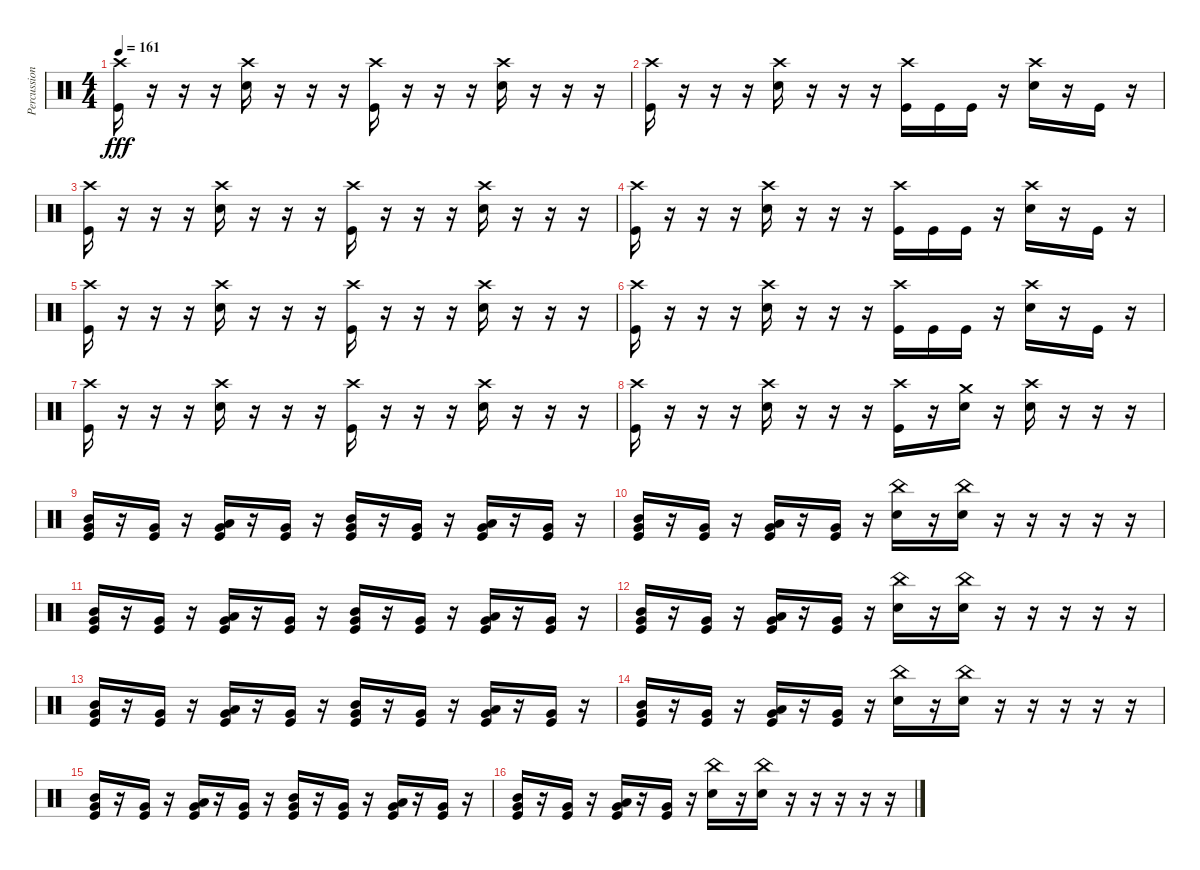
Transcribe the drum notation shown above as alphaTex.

\track ("Percussion" "Percussion") {instrument percussion}
\staff {score}
\articulation defaults
\ts (4 4)
\tempo 161
\clef neutral
\ks c
("Crash high (hit)" "Kick (hit)").16{dy fff} r.16 r.16 r.16 ("Crash high (hit)" "Electric Snare (hit)").16 r.16 r.16 r.16 ("Crash high (hit)" "Kick (hit)").16 r.16 r.16 r.16 ("Crash high (hit)" "Electric Snare (hit)").16 r.16 r.16 r.16 |
("Crash high (hit)" "Kick (hit)").16 r.16 r.16 r.16 ("Crash high (hit)" "Electric Snare (hit)").16 r.16 r.16 r.16 ("Crash high (hit)" "Kick (hit)").16 "Kick (hit)".16 "Kick (hit)".16 r.16 ("Crash high (hit)" "Electric Snare (hit)").16 r.16 "Kick (hit)".16 r.16 |
("Crash high (hit)" "Kick (hit)").16 r.16 r.16 r.16 ("Crash high (hit)" "Electric Snare (hit)").16 r.16 r.16 r.16 ("Crash high (hit)" "Kick (hit)").16 r.16 r.16 r.16 ("Crash high (hit)" "Electric Snare (hit)").16 r.16 r.16 r.16 |
("Crash high (hit)" "Kick (hit)").16 r.16 r.16 r.16 ("Crash high (hit)" "Electric Snare (hit)").16 r.16 r.16 r.16 ("Crash high (hit)" "Kick (hit)").16 "Kick (hit)".16 "Kick (hit)".16 r.16 ("Crash high (hit)" "Electric Snare (hit)").16 r.16 "Kick (hit)".16 r.16 |
("Crash high (hit)" "Kick (hit)").16 r.16 r.16 r.16 ("Crash high (hit)" "Electric Snare (hit)").16 r.16 r.16 r.16 ("Crash high (hit)" "Kick (hit)").16 r.16 r.16 r.16 ("Crash high (hit)" "Electric Snare (hit)").16 r.16 r.16 r.16 |
("Crash high (hit)" "Kick (hit)").16 r.16 r.16 r.16 ("Crash high (hit)" "Electric Snare (hit)").16 r.16 r.16 r.16 ("Crash high (hit)" "Kick (hit)").16 "Kick (hit)".16 "Kick (hit)".16 r.16 ("Crash high (hit)" "Electric Snare (hit)").16 r.16 "Kick (hit)".16 r.16 |
("Crash high (hit)" "Kick (hit)").16 r.16 r.16 r.16 ("Crash high (hit)" "Electric Snare (hit)").16 r.16 r.16 r.16 ("Crash high (hit)" "Kick (hit)").16 r.16 r.16 r.16 ("Crash high (hit)" "Electric Snare (hit)").16 r.16 r.16 r.16 |
("Crash high (hit)" "Kick (hit)").16 r.16 r.16 r.16 ("Crash high (hit)" "Electric Snare (hit)").16 r.16 r.16 r.16 ("Crash high (hit)" "Kick (hit)").16 r.16 ("Crash medium (hit)" "Electric Snare (hit)").16 r.16 ("Crash high (hit)" "Electric Snare (hit)").16 r.16 r.16 r.16 |
("Very Low Tom (hit)" "Mid Tom (hit)" "Kick (hit)").16 r.16 ("Very Low Tom (hit)" "Kick (hit)").16 r.16 ("Very Low Tom (hit)" "Low Tom (hit)" "Kick (hit)").16 r.16 ("Very Low Tom (hit)" "Kick (hit)").16 r.16 ("Very Low Tom (hit)" "Mid Tom (hit)" "Kick (hit)").16 r.16 ("Very Low Tom (hit)" "Kick (hit)").16 r.16 ("Very Low Tom (hit)" "Low Tom (hit)" "Kick (hit)").16 r.16 ("Very Low Tom (hit)" "Kick (hit)").16 r.16 |
("Very Low Tom (hit)" "Mid Tom (hit)" "Kick (hit)").16 r.16 ("Very Low Tom (hit)" "Kick (hit)").16 r.16 ("Very Low Tom (hit)" "Low Tom (hit)" "Kick (hit)").16 r.16 ("Very Low Tom (hit)" "Kick (hit)").16 r.16 ("China (hit)" "Electric Snare (hit)").16 r.16 ("China (hit)" "Electric Snare (hit)").16 r.16 r.16 r.16 r.16 r.16 |
("Very Low Tom (hit)" "Mid Tom (hit)" "Kick (hit)").16 r.16 ("Very Low Tom (hit)" "Kick (hit)").16 r.16 ("Very Low Tom (hit)" "Low Tom (hit)" "Kick (hit)").16 r.16 ("Very Low Tom (hit)" "Kick (hit)").16 r.16 ("Very Low Tom (hit)" "Mid Tom (hit)" "Kick (hit)").16 r.16 ("Very Low Tom (hit)" "Kick (hit)").16 r.16 ("Very Low Tom (hit)" "Low Tom (hit)" "Kick (hit)").16 r.16 ("Very Low Tom (hit)" "Kick (hit)").16 r.16 |
("Very Low Tom (hit)" "Mid Tom (hit)" "Kick (hit)").16 r.16 ("Very Low Tom (hit)" "Kick (hit)").16 r.16 ("Very Low Tom (hit)" "Low Tom (hit)" "Kick (hit)").16 r.16 ("Very Low Tom (hit)" "Kick (hit)").16 r.16 ("China (hit)" "Electric Snare (hit)").16 r.16 ("China (hit)" "Electric Snare (hit)").16 r.16 r.16 r.16 r.16 r.16 |
("Very Low Tom (hit)" "Mid Tom (hit)" "Kick (hit)").16 r.16 ("Very Low Tom (hit)" "Kick (hit)").16 r.16 ("Very Low Tom (hit)" "Low Tom (hit)" "Kick (hit)").16 r.16 ("Very Low Tom (hit)" "Kick (hit)").16 r.16 ("Very Low Tom (hit)" "Mid Tom (hit)" "Kick (hit)").16 r.16 ("Very Low Tom (hit)" "Kick (hit)").16 r.16 ("Very Low Tom (hit)" "Low Tom (hit)" "Kick (hit)").16 r.16 ("Very Low Tom (hit)" "Kick (hit)").16 r.16 |
("Very Low Tom (hit)" "Mid Tom (hit)" "Kick (hit)").16 r.16 ("Very Low Tom (hit)" "Kick (hit)").16 r.16 ("Very Low Tom (hit)" "Low Tom (hit)" "Kick (hit)").16 r.16 ("Very Low Tom (hit)" "Kick (hit)").16 r.16 ("China (hit)" "Electric Snare (hit)").16 r.16 ("China (hit)" "Electric Snare (hit)").16 r.16 r.16 r.16 r.16 r.16 |
("Very Low Tom (hit)" "Mid Tom (hit)" "Kick (hit)").16 r.16 ("Very Low Tom (hit)" "Kick (hit)").16 r.16 ("Very Low Tom (hit)" "Low Tom (hit)" "Kick (hit)").16 r.16 ("Very Low Tom (hit)" "Kick (hit)").16 r.16 ("Very Low Tom (hit)" "Mid Tom (hit)" "Kick (hit)").16 r.16 ("Very Low Tom (hit)" "Kick (hit)").16 r.16 ("Very Low Tom (hit)" "Low Tom (hit)" "Kick (hit)").16 r.16 ("Very Low Tom (hit)" "Kick (hit)").16 r.16 |
("Very Low Tom (hit)" "Mid Tom (hit)" "Kick (hit)").16 r.16 ("Very Low Tom (hit)" "Kick (hit)").16 r.16 ("Very Low Tom (hit)" "Low Tom (hit)" "Kick (hit)").16 r.16 ("Very Low Tom (hit)" "Kick (hit)").16 r.16 ("China (hit)" "Electric Snare (hit)").16 r.16 ("China (hit)" "Electric Snare (hit)").16 r.16 r.16 r.16 r.16 r.16
